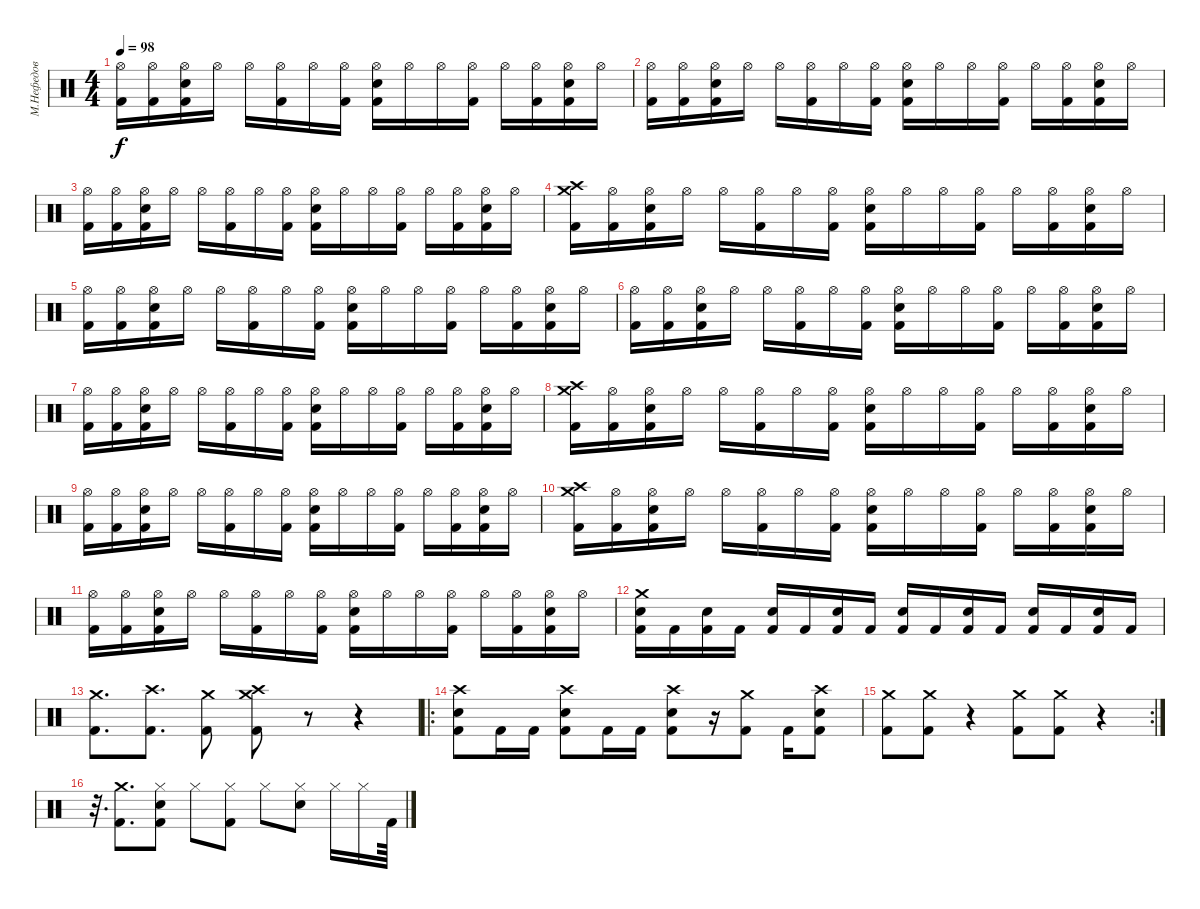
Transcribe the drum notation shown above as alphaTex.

\track ("М.Нефедов" "М.Нефедов") {instrument percussion}
\staff {score}
\articulation defaults
\ts (4 4)
\tempo 98
\clef neutral
\ks c
("Hi-Hat (open)" "Kick (hit) 2").16{dy f} ("Hi-Hat (open)" "Kick (hit) 2").16 ("Hi-Hat (open)" "Snare (hit) 2" "Kick (hit) 2").16 "Hi-Hat (open)".16 "Hi-Hat (open)".16 ("Hi-Hat (open)" "Kick (hit) 2").16 "Hi-Hat (open)".16 ("Hi-Hat (open)" "Kick (hit) 2").16 ("Hi-Hat (open)" "Snare (hit) 2" "Kick (hit) 2").16 "Hi-Hat (open)".16 "Hi-Hat (open)".16 ("Hi-Hat (open)" "Kick (hit) 2").16 "Hi-Hat (open)".16 ("Hi-Hat (open)" "Kick (hit) 2").16 ("Hi-Hat (open)" "Snare (hit) 2" "Kick (hit) 2").16 "Hi-Hat (open)".16 |
("Hi-Hat (open)" "Kick (hit) 2").16 ("Hi-Hat (open)" "Kick (hit) 2").16 ("Hi-Hat (open)" "Snare (hit) 2" "Kick (hit) 2").16 "Hi-Hat (open)".16 "Hi-Hat (open)".16 ("Hi-Hat (open)" "Kick (hit) 2").16 "Hi-Hat (open)".16 ("Hi-Hat (open)" "Kick (hit) 2").16 ("Hi-Hat (open)" "Snare (hit) 2" "Kick (hit) 2").16 "Hi-Hat (open)".16 "Hi-Hat (open)".16 ("Hi-Hat (open)" "Kick (hit) 2").16 "Hi-Hat (open)".16 ("Hi-Hat (open)" "Kick (hit) 2").16 ("Hi-Hat (open)" "Snare (hit) 2" "Kick (hit) 2").16 "Hi-Hat (open)".16 |
("Hi-Hat (open)" "Kick (hit) 2").16 ("Hi-Hat (open)" "Kick (hit) 2").16 ("Hi-Hat (open)" "Snare (hit) 2" "Kick (hit) 2").16 "Hi-Hat (open)".16 "Hi-Hat (open)".16 ("Hi-Hat (open)" "Kick (hit) 2").16 "Hi-Hat (open)".16 ("Hi-Hat (open)" "Kick (hit) 2").16 ("Hi-Hat (open)" "Snare (hit) 2" "Kick (hit) 2").16 "Hi-Hat (open)".16 "Hi-Hat (open)".16 ("Hi-Hat (open)" "Kick (hit) 2").16 "Hi-Hat (open)".16 ("Hi-Hat (open)" "Kick (hit) 2").16 ("Hi-Hat (open)" "Snare (hit) 2" "Kick (hit) 2").16 "Hi-Hat (open)".16 |
("Crash medium (hit)" "Crash high (hit)" "Kick (hit) 2").16 ("Hi-Hat (open)" "Kick (hit) 2").16 ("Hi-Hat (open)" "Snare (hit) 2" "Kick (hit) 2").16 "Hi-Hat (open)".16 "Hi-Hat (open)".16 ("Hi-Hat (open)" "Kick (hit) 2").16 "Hi-Hat (open)".16 ("Hi-Hat (open)" "Kick (hit) 2").16 ("Hi-Hat (open)" "Snare (hit) 2" "Kick (hit) 2").16 "Hi-Hat (open)".16 "Hi-Hat (open)".16 ("Hi-Hat (open)" "Kick (hit) 2").16 "Hi-Hat (open)".16 ("Hi-Hat (open)" "Kick (hit) 2").16 ("Hi-Hat (open)" "Snare (hit) 2" "Kick (hit) 2").16 "Hi-Hat (open)".16 |
("Hi-Hat (open)" "Kick (hit) 2").16 ("Hi-Hat (open)" "Kick (hit) 2").16 ("Hi-Hat (open)" "Snare (hit) 2" "Kick (hit) 2").16 "Hi-Hat (open)".16 "Hi-Hat (open)".16 ("Hi-Hat (open)" "Kick (hit) 2").16 "Hi-Hat (open)".16 ("Hi-Hat (open)" "Kick (hit) 2").16 ("Hi-Hat (open)" "Snare (hit) 2" "Kick (hit) 2").16 "Hi-Hat (open)".16 "Hi-Hat (open)".16 ("Hi-Hat (open)" "Kick (hit) 2").16 "Hi-Hat (open)".16 ("Hi-Hat (open)" "Kick (hit) 2").16 ("Hi-Hat (open)" "Snare (hit) 2" "Kick (hit) 2").16 "Hi-Hat (open)".16 |
("Hi-Hat (open)" "Kick (hit) 2").16 ("Hi-Hat (open)" "Kick (hit) 2").16 ("Hi-Hat (open)" "Snare (hit) 2" "Kick (hit) 2").16 "Hi-Hat (open)".16 "Hi-Hat (open)".16 ("Hi-Hat (open)" "Kick (hit) 2").16 "Hi-Hat (open)".16 ("Hi-Hat (open)" "Kick (hit) 2").16 ("Hi-Hat (open)" "Snare (hit) 2" "Kick (hit) 2").16 "Hi-Hat (open)".16 "Hi-Hat (open)".16 ("Hi-Hat (open)" "Kick (hit) 2").16 "Hi-Hat (open)".16 ("Hi-Hat (open)" "Kick (hit) 2").16 ("Hi-Hat (open)" "Snare (hit) 2" "Kick (hit) 2").16 "Hi-Hat (open)".16 |
("Hi-Hat (open)" "Kick (hit) 2").16 ("Hi-Hat (open)" "Kick (hit) 2").16 ("Hi-Hat (open)" "Snare (hit) 2" "Kick (hit) 2").16 "Hi-Hat (open)".16 "Hi-Hat (open)".16 ("Hi-Hat (open)" "Kick (hit) 2").16 "Hi-Hat (open)".16 ("Hi-Hat (open)" "Kick (hit) 2").16 ("Hi-Hat (open)" "Snare (hit) 2" "Kick (hit) 2").16 "Hi-Hat (open)".16 "Hi-Hat (open)".16 ("Hi-Hat (open)" "Kick (hit) 2").16 "Hi-Hat (open)".16 ("Hi-Hat (open)" "Kick (hit) 2").16 ("Hi-Hat (open)" "Snare (hit) 2" "Kick (hit) 2").16 "Hi-Hat (open)".16 |
("Crash medium (hit)" "Crash high (hit)" "Kick (hit) 2").16 ("Hi-Hat (open)" "Kick (hit) 2").16 ("Hi-Hat (open)" "Snare (hit) 2" "Kick (hit) 2").16 "Hi-Hat (open)".16 "Hi-Hat (open)".16 ("Hi-Hat (open)" "Kick (hit) 2").16 "Hi-Hat (open)".16 ("Hi-Hat (open)" "Kick (hit) 2").16 ("Hi-Hat (open)" "Snare (hit) 2" "Kick (hit) 2").16 "Hi-Hat (open)".16 "Hi-Hat (open)".16 ("Hi-Hat (open)" "Kick (hit) 2").16 "Hi-Hat (open)".16 ("Hi-Hat (open)" "Kick (hit) 2").16 ("Hi-Hat (open)" "Snare (hit) 2" "Kick (hit) 2").16 "Hi-Hat (open)".16 |
("Hi-Hat (open)" "Kick (hit) 2").16 ("Hi-Hat (open)" "Kick (hit) 2").16 ("Hi-Hat (open)" "Snare (hit) 2" "Kick (hit) 2").16 "Hi-Hat (open)".16 "Hi-Hat (open)".16 ("Hi-Hat (open)" "Kick (hit) 2").16 "Hi-Hat (open)".16 ("Hi-Hat (open)" "Kick (hit) 2").16 ("Hi-Hat (open)" "Snare (hit) 2" "Kick (hit) 2").16 "Hi-Hat (open)".16 "Hi-Hat (open)".16 ("Hi-Hat (open)" "Kick (hit) 2").16 "Hi-Hat (open)".16 ("Hi-Hat (open)" "Kick (hit) 2").16 ("Hi-Hat (open)" "Snare (hit) 2" "Kick (hit) 2").16 "Hi-Hat (open)".16 |
("Crash medium (hit)" "Crash high (hit)" "Kick (hit) 2").16 ("Hi-Hat (open)" "Kick (hit) 2").16 ("Hi-Hat (open)" "Snare (hit) 2" "Kick (hit) 2").16 "Hi-Hat (open)".16 "Hi-Hat (open)".16 ("Hi-Hat (open)" "Kick (hit) 2").16 "Hi-Hat (open)".16 ("Hi-Hat (open)" "Kick (hit) 2").16 ("Hi-Hat (open)" "Snare (hit) 2" "Kick (hit) 2").16 "Hi-Hat (open)".16 "Hi-Hat (open)".16 ("Hi-Hat (open)" "Kick (hit) 2").16 "Hi-Hat (open)".16 ("Hi-Hat (open)" "Kick (hit) 2").16 ("Hi-Hat (open)" "Snare (hit) 2" "Kick (hit) 2").16 "Hi-Hat (open)".16 |
("Hi-Hat (open)" "Kick (hit) 2").16 ("Hi-Hat (open)" "Kick (hit) 2").16 ("Hi-Hat (open)" "Snare (hit) 2" "Kick (hit) 2").16 "Hi-Hat (open)".16 "Hi-Hat (open)".16 ("Hi-Hat (open)" "Kick (hit) 2").16 "Hi-Hat (open)".16 ("Hi-Hat (open)" "Kick (hit) 2").16 ("Hi-Hat (open)" "Snare (hit) 2" "Kick (hit) 2").16 "Hi-Hat (open)".16 "Hi-Hat (open)".16 ("Hi-Hat (open)" "Kick (hit) 2").16 "Hi-Hat (open)".16 ("Hi-Hat (open)" "Kick (hit) 2").16 ("Hi-Hat (open)" "Snare (hit) 2" "Kick (hit) 2").16 "Hi-Hat (open)".16 |
("Crash medium (hit)" "Snare (hit) 2" "Kick (hit) 2").16 "Kick (hit) 2".16 ("Snare (hit) 2" "Kick (hit) 2").16 "Kick (hit) 2".16 ("Snare (hit) 2" "Kick (hit) 2").16 "Kick (hit) 2".16 ("Snare (hit) 2" "Kick (hit) 2").16 "Kick (hit) 2".16 ("Snare (hit) 2" "Kick (hit) 2").16 "Kick (hit) 2".16 ("Snare (hit) 2" "Kick (hit) 2").16 "Kick (hit) 2".16 ("Snare (hit) 2" "Kick (hit) 2").16 "Kick (hit) 2".16 ("Snare (hit) 2" "Kick (hit) 2").16 "Kick (hit) 2".16 |
("Crash medium (hit)" "Kick (hit) 2").8{d} ("Crash high (hit)" "Kick (hit) 2").8{d} ("Crash medium (hit)" "Kick (hit) 2").8 ("Crash medium (hit)" "Crash high (hit)" "Kick (hit) 2").8 r.8 r.4 |
\ro
("Crash high (hit)" "Snare (hit) 2" "Kick (hit) 2").8 "Kick (hit) 2".16 "Kick (hit) 2".16 ("Crash high (hit)" "Snare (hit) 2" "Kick (hit) 2").8 "Kick (hit) 2".16 "Kick (hit) 2".16 ("Crash high (hit)" "Snare (hit) 2" "Kick (hit) 2").8 r.16 ("Crash medium (hit)" "Kick (hit) 2").8 "Kick (hit) 2".16 ("Crash high (hit)" "Snare (hit) 2" "Kick (hit) 2").8 |
\rc 2
("Crash medium (hit)" "Kick (hit) 2").8 ("Crash medium (hit)" "Kick (hit) 2").8 r.4 ("Crash medium (hit)" "Kick (hit) 2").8 ("Crash medium (hit)" "Kick (hit) 2").8 r.4 |
r.32{d} ("Crash medium (hit)" "Kick (hit) 2").8{d} ("Hi-Hat (closed)" "Snare (hit) 2" "Kick (hit) 2").8 "Hi-Hat (closed)".8 ("Hi-Hat (closed)" "Kick (hit) 2").8 "Hi-Hat (closed)".8 ("Hi-Hat (closed)" "Snare (hit) 2").8 "Hi-Hat (closed)".16 "Hi-Hat (closed)".16 "Kick (hit) 2".64
